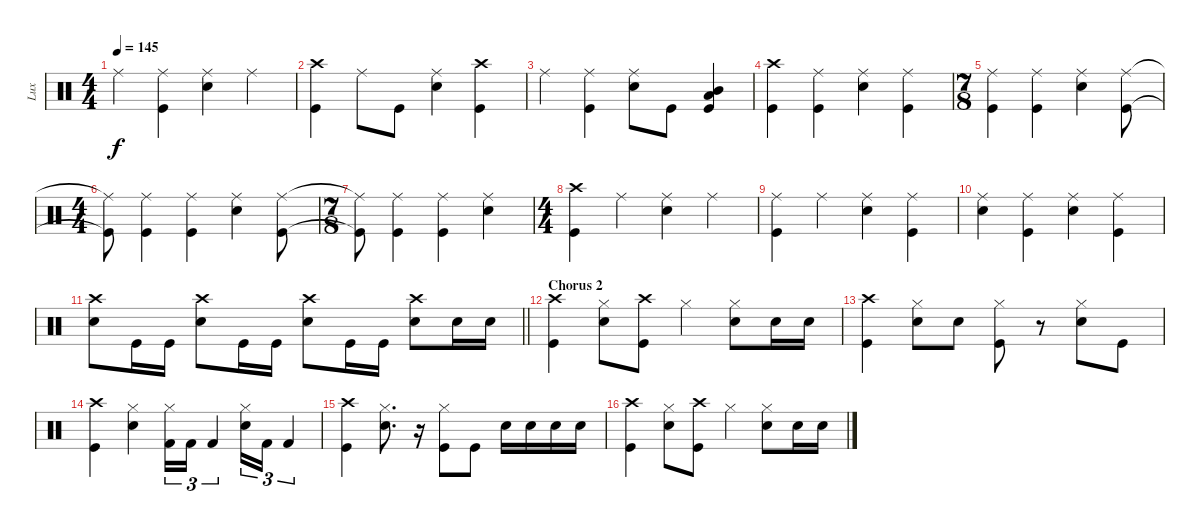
\track ("Lux" "Lux") {mute instrument percussion}
\staff {score}
\articulation defaults
\ts (4 4)
\tempo 145
\clef neutral
\ks c "Ride (middle)".4{dy f}
("Ride (middle)" "Kick (hit)").4 ("Ride (middle)" "Snare (hit) 2").4 "Ride (middle)".4 |
("Crash high (hit)" "Kick (hit)").4 "Ride (middle)".8 "Kick (hit)".8 ("Ride (middle)" "Snare (hit) 2").4 ("Crash high (hit)" "Kick (hit)").4 |
"Ride (middle)".4 ("Ride (middle)" "Kick (hit)").4 ("Ride (middle)" "Snare (hit) 2").8 "Kick (hit)".8 ("Low Tom (hit)" "Mid Tom (hit)" "Kick (hit)").4 |
("Crash high (hit)" "Kick (hit)").4 ("Ride (middle)" "Kick (hit)").4 ("Ride (middle)" "Snare (hit) 2").4 ("Ride (middle)" "Kick (hit)").4 |
\ts (7 8)
("Ride (middle)" "Kick (hit)").4 ("Ride (middle)" "Kick (hit)").4 ("Ride (middle)" "Snare (hit) 2").4 ("Ride (middle)" "Kick (hit)").8 |
\ts (4 4)
("Ride (middle)"{t} "Kick (hit)"{t}).8 ("Ride (middle)" "Kick (hit)").4 ("Ride (middle)" "Kick (hit)").4 ("Ride (middle)" "Snare (hit) 2").4 ("Ride (middle)" "Kick (hit)").8 |
\ts (7 8)
("Ride (middle)"{t} "Kick (hit)"{t}).8 ("Ride (middle)" "Kick (hit)").4 ("Ride (middle)" "Kick (hit)").4 ("Ride (middle)" "Snare (hit) 2").4 |
\ts (4 4)
("Crash high (hit)" "Kick (hit)").4 "Ride (middle)".4 ("Ride (middle)" "Snare (hit) 2").4 "Ride (middle)".4 |
("Ride (middle)" "Kick (hit)").4 "Ride (middle)".4 ("Ride (middle)" "Snare (hit) 2").4 ("Ride (middle)" "Kick (hit)").4 |
("Ride (middle)" "Snare (hit) 2").4 ("Ride (middle)" "Kick (hit)").4 ("Ride (middle)" "Snare (hit) 2").4 ("Ride (middle)" "Kick (hit)").4 |
\barLineRight lightlight
("Crash high (hit)" "Snare (hit) 2").8 "Kick (hit)".16 "Kick (hit)".16 ("Crash high (hit)" "Snare (hit) 2").8 "Kick (hit)".16 "Kick (hit)".16 ("Crash high (hit)" "Snare (hit) 2").8 "Kick (hit)".16 "Kick (hit)".16 ("Crash high (hit)" "Snare (hit) 2").8 "Snare (hit) 2".16 "Snare (hit) 2".16 |
\section ("" "Chorus 2")
("Crash high (hit)" "Kick (hit)").4 ("Hi-Hat (closed)" "Snare (hit) 2").8 ("Crash high (hit)" "Kick (hit)").8 "Hi-Hat (closed)".4 ("Hi-Hat (closed)" "Snare (hit) 2").8 "Snare (hit) 2".16 "Snare (hit) 2".16 |
("Crash high (hit)" "Kick (hit)").4 ("Hi-Hat (closed)" "Snare (hit) 2").8 "Snare (hit) 2".8 ("Hi-Hat (closed)" "Kick (hit)").8 r.8 ("Hi-Hat (closed)" "Snare (hit) 2").8 "Kick (hit)".8 |
("Crash high (hit)" "Kick (hit)").4 ("Hi-Hat (closed)" "Snare (hit) 2").4 ("Hi-Hat (closed)" "Kick (hit) 2").16{tu (3 2)} "Kick (hit) 2".16{tu (3 2)} "Kick (hit) 2".4{tu (3 2)} ("Hi-Hat (closed)" "Snare (hit) 2").16{tu (3 2)} "Kick (hit) 2".16{tu (3 2)} "Kick (hit) 2".4{tu (3 2)} |
("Crash high (hit)" "Kick (hit)").4 ("Hi-Hat (closed)" "Snare (hit) 2").8{d} r.16 ("Hi-Hat (closed)" "Kick (hit)").8 "Kick (hit)".8 "Snare (hit) 2".16 "Snare (hit) 2".16 "Snare (hit) 2".16 "Snare (hit) 2".16 |
("Crash high (hit)" "Kick (hit)").4 ("Hi-Hat (closed)" "Snare (hit) 2").8 ("Crash high (hit)" "Kick (hit)").8 "Hi-Hat (closed)".4 ("Hi-Hat (closed)" "Snare (hit) 2").8 "Snare (hit) 2".16 "Snare (hit) 2".16
